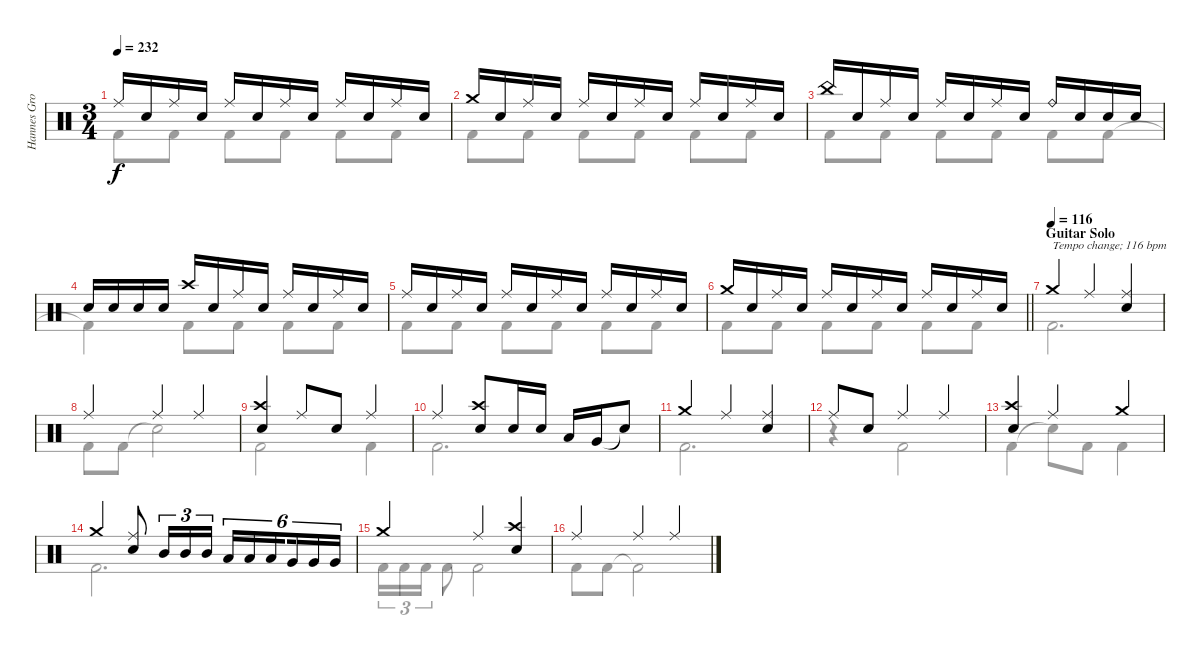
\track ("Hannes Grossman" "Hannes Gro") {instrument percussion}
\staff {score}
\articulation defaults
\voice
\ts (3 4)
\tempo 232
\clef neutral
\ks c "Ride (middle)".16{dy f} "Electric Snare (hit)".16 "Ride (middle)".16 "Electric Snare (hit)".16 "Ride (middle)".16 "Electric Snare (hit)".16 "Ride (middle)".16 "Electric Snare (hit)".16 "Ride (middle)".16 "Electric Snare (hit)".16 "Ride (middle)".16 "Electric Snare (hit)".16
|
"Crash medium (hit)".16 "Electric Snare (hit)".16 "Ride (middle)".16 "Electric Snare (hit)".16 "Ride (middle)".16 "Electric Snare (hit)".16 "Ride (middle)".16 "Electric Snare (hit)".16 "Ride (middle)".16 "Electric Snare (hit)".16 "Ride (middle)".16 "Electric Snare (hit)".16 |
"China (hit)".16 "Electric Snare (hit)".16 "Ride (middle)".16 "Electric Snare (hit)".16 "Ride (middle)".16 "Electric Snare (hit)".16 "Ride (middle)".16 "Electric Snare (hit)".16 "Ride (bell)".16 "Electric Snare (hit)".16 "Electric Snare (hit)".16 "Electric Snare (hit)".16 |
"Electric Snare (hit)".16 "Electric Snare (hit)".16 "Electric Snare (hit)".16 "Electric Snare (hit)".16 "Crash high (hit)".16 "Electric Snare (hit)".16 "Ride (middle)".16 "Electric Snare (hit)".16 "Ride (middle)".16 "Electric Snare (hit)".16 "Ride (middle)".16 "Electric Snare (hit)".16 |
"Ride (middle)".16 "Electric Snare (hit)".16 "Ride (middle)".16 "Electric Snare (hit)".16 "Ride (middle)".16 "Electric Snare (hit)".16 "Ride (middle)".16 "Electric Snare (hit)".16 "Ride (middle)".16 "Electric Snare (hit)".16 "Ride (middle)".16 "Electric Snare (hit)".16 |
\barLineRight lightlight "Crash medium (hit)".16 "Electric Snare (hit)".16 "Ride (middle)".16 "Electric Snare (hit)".16 "Ride (middle)".16 "Electric Snare (hit)".16 "Ride (middle)".16 "Electric Snare (hit)".16 "Ride (middle)".16 "Electric Snare (hit)".16 "Ride (middle)".16 "Electric Snare (hit)".16
|
\section ("" "Guitar Solo")
\tempo (116)
"Crash medium (hit)".4{txt "Tempo change; 116 bpm"} "Ride (middle)".4 ("Ride (middle)" "Electric Snare (hit)").4 |
"Ride (middle)".4 "Ride (middle)".4 "Ride (middle)".4 |
("Electric Snare (hit)" "Crash high (hit)").4 "Ride (middle)".8 "Electric Snare (hit)".8 "Ride (middle)".4 |
"Ride (middle)".4 ("Crash high (hit)" "Electric Snare (hit)").8 "Electric Snare (hit)".16 "Electric Snare (hit)".16 "Low Tom (hit)".16 "Very Low Tom (hit)".16 "Snare (hit)"{t}.8 |
"Crash medium (hit)".4 "Ride (middle)".4 ("Ride (middle)" "Electric Snare (hit)").4 |
"Ride (middle)".8 "Electric Snare (hit)".8 "Ride (middle)".4 "Ride (middle)".4 |
("Crash high (hit)" "Electric Snare (hit)").4 "Ride (middle)".4 "Crash medium (hit)".4 |
"Crash medium (hit)".4 ("Ride (middle)" "Electric Snare (hit)").8 "Mid Tom (hit)".16{tu (3 2)} "Mid Tom (hit)".16{tu (3 2)} "Mid Tom (hit)".16{tu (3 2)} "Low Tom (hit)".16{tu (6 4)} "Low Tom (hit)".16{tu (6 4)} "Low Tom (hit)".16{tu (6 4) beam splitsecondary} "Very Low Tom (hit)".16{tu (6 4)} "Very Low Tom (hit)".16{tu (6 4)} "Very Low Tom (hit)".16{tu (6 4)} |
"Crash medium (hit)".4 "Ride (middle)".4 ("Crash high (hit)" "Electric Snare (hit)").4 |
"Ride (middle)".4 "Ride (middle)".4 "Ride (middle)".4
\voice
\clef neutral
\ottava regular
\simile none
\ks c "Kick (hit) 2".8{dy f} "Kick (hit) 2".8 "Kick (hit) 2".8 "Kick (hit) 2".8 "Kick (hit) 2".8 "Kick (hit) 2".8
|
"Kick (hit) 2".8 "Kick (hit) 2".8 "Kick (hit) 2".8 "Kick (hit) 2".8 "Kick (hit) 2".8 "Kick (hit) 2".8 |
"Kick (hit) 2".8 "Kick (hit) 2".8 "Kick (hit) 2".8 "Kick (hit) 2".8 "Kick (hit) 2".8 "Kick (hit) 2".8 |
"Kick (hit) 2"{t}.4 "Kick (hit) 2".8 "Kick (hit) 2".8 "Kick (hit) 2".8 "Kick (hit) 2".8 |
"Kick (hit) 2".8 "Kick (hit) 2".8 "Kick (hit) 2".8 "Kick (hit) 2".8 "Kick (hit) 2".8 "Kick (hit) 2".8 |
\barLineRight lightlight "Kick (hit) 2".8 "Kick (hit) 2".8 "Kick (hit) 2".8 "Kick (hit) 2".8 "Kick (hit) 2".8 "Kick (hit) 2".8
|
"Kick (hit) 2".2{d} |
"Kick (hit) 2".8 "Kick (hit) 2".8 "Snare (hit)"{t}.2 |
"Kick (hit) 2".2 "Kick (hit) 2".4 |
"Kick (hit) 2".2{d} |
"Kick (hit) 2".2{d} |
r.4 "Kick (hit) 2".2 |
"Kick (hit) 2".4 "Snare (hit)"{t}.8 "Kick (hit) 2".8 "Kick (hit) 2".4 |
"Kick (hit) 2".2{d} |
"Kick (hit) 2".16{tu (3 2)} "Kick (hit) 2".16{tu (3 2)} "Kick (hit) 2".16{tu (3 2)} "Kick (hit) 2".8 "Kick (hit) 2".2 |
"Kick (hit) 2".8 "Kick (hit) 2".8 "Kick (hit) 2"{t}.2
